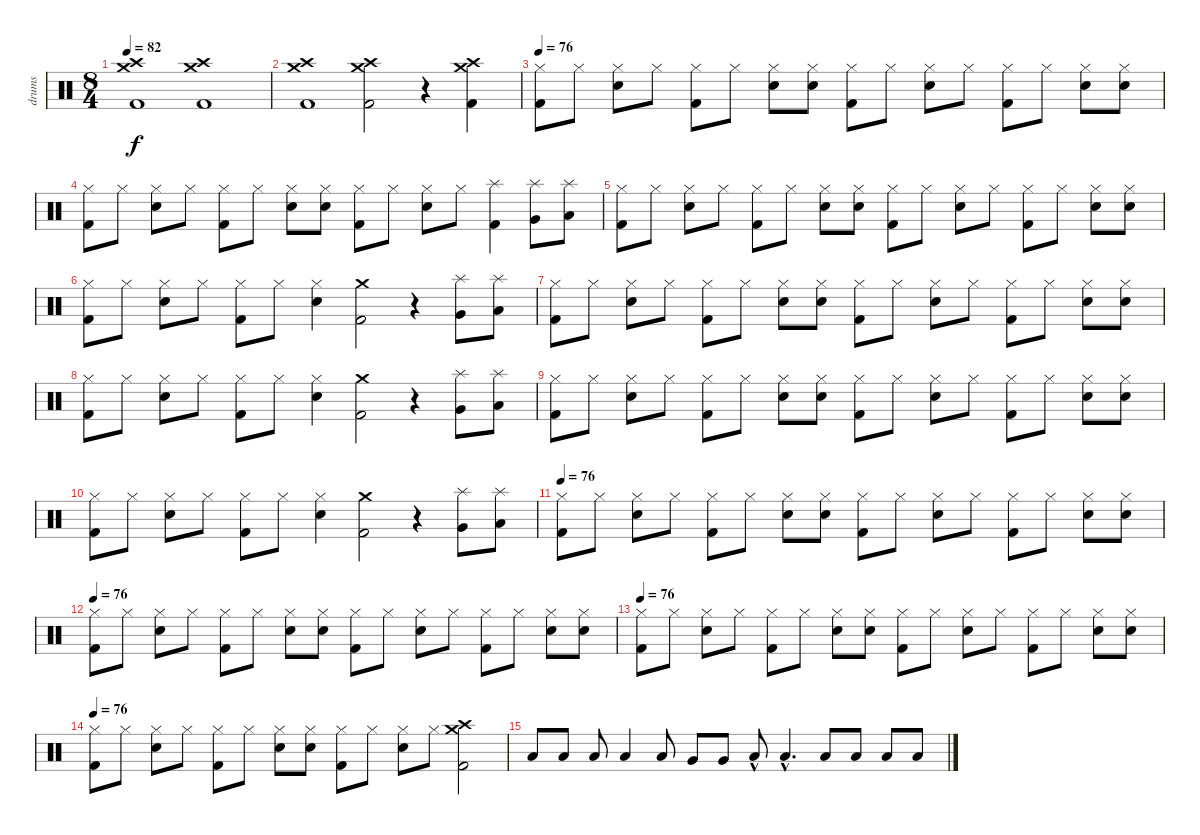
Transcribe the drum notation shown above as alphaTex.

\track ("drums" "drums") {instrument percussion}
\staff {score}
\articulation defaults
\ts (8 4)
\tempo 82
\clef neutral
\ks c
("Kick (hit) 2" "Crash medium (hit)" "Crash high (hit)").1{dy f} ("Kick (hit) 2" "Crash medium (hit)" "Crash high (hit)").1 |
("Kick (hit) 2" "Crash medium (hit)" "Crash high (hit)").1 ("Kick (hit) 2" "Crash medium (hit)" "Crash high (hit)").2 r.4 ("Kick (hit) 2" "Crash medium (hit)" "Crash high (hit)").4 |
\tempo 76
("Kick (hit) 2" "Hi-Hat (closed)").8 "Hi-Hat (closed)".8 ("Electric Snare (hit)" "Hi-Hat (closed)").8 "Hi-Hat (closed)".8 ("Kick (hit) 2" "Hi-Hat (closed)").8 "Hi-Hat (closed)".8 ("Electric Snare (hit)" "Hi-Hat (closed)").8 ("Electric Snare (hit)" "Hi-Hat (closed)").8 ("Kick (hit) 2" "Hi-Hat (closed)").8 "Hi-Hat (closed)".8 ("Electric Snare (hit)" "Hi-Hat (closed)").8 "Hi-Hat (closed)".8 ("Kick (hit) 2" "Hi-Hat (closed)").8 "Hi-Hat (closed)".8 ("Electric Snare (hit)" "Hi-Hat (closed)").8 ("Electric Snare (hit)" "Hi-Hat (closed)").8 |
("Kick (hit) 2" "Hi-Hat (closed)").8 "Hi-Hat (closed)".8 ("Electric Snare (hit)" "Hi-Hat (closed)").8 "Hi-Hat (closed)".8 ("Kick (hit) 2" "Hi-Hat (closed)").8 "Hi-Hat (closed)".8 ("Electric Snare (hit)" "Hi-Hat (closed)").8 ("Electric Snare (hit)" "Hi-Hat (closed)").8 ("Kick (hit) 2" "Hi-Hat (closed)").8 "Hi-Hat (closed)".8 ("Electric Snare (hit)" "Hi-Hat (closed)").8 "Hi-Hat (closed)".8 ("Kick (hit) 2" "Splash (hit)").4 ("Very Low Tom (hit)" "Splash (hit)").8 ("Low Floor Tom (hit)" "Splash (hit)").8 |
("Kick (hit) 2" "Hi-Hat (closed)").8 "Hi-Hat (closed)".8 ("Electric Snare (hit)" "Hi-Hat (closed)").8 "Hi-Hat (closed)".8 ("Kick (hit) 2" "Hi-Hat (closed)").8 "Hi-Hat (closed)".8 ("Electric Snare (hit)" "Hi-Hat (closed)").8 ("Electric Snare (hit)" "Hi-Hat (closed)").8 ("Kick (hit) 2" "Hi-Hat (closed)").8 "Hi-Hat (closed)".8 ("Electric Snare (hit)" "Hi-Hat (closed)").8 "Hi-Hat (closed)".8 ("Kick (hit) 2" "Hi-Hat (closed)").8 "Hi-Hat (closed)".8 ("Electric Snare (hit)" "Hi-Hat (closed)").8 ("Electric Snare (hit)" "Hi-Hat (closed)").8 |
("Kick (hit) 2" "Hi-Hat (closed)").8 "Hi-Hat (closed)".8 ("Electric Snare (hit)" "Hi-Hat (closed)").8 "Hi-Hat (closed)".8 ("Kick (hit) 2" "Hi-Hat (closed)").8 "Hi-Hat (closed)".8 ("Electric Snare (hit)" "Hi-Hat (closed)").4 ("Kick (hit) 2" "Crash medium (hit)").2 r.4 ("Very Low Tom (hit)" "Splash (hit)").8 ("Low Floor Tom (hit)" "Splash (hit)").8 |
("Kick (hit) 2" "Hi-Hat (closed)").8 "Hi-Hat (closed)".8 ("Electric Snare (hit)" "Hi-Hat (closed)").8 "Hi-Hat (closed)".8 ("Kick (hit) 2" "Hi-Hat (closed)").8 "Hi-Hat (closed)".8 ("Electric Snare (hit)" "Hi-Hat (closed)").8 ("Electric Snare (hit)" "Hi-Hat (closed)").8 ("Kick (hit) 2" "Hi-Hat (closed)").8 "Hi-Hat (closed)".8 ("Electric Snare (hit)" "Hi-Hat (closed)").8 "Hi-Hat (closed)".8 ("Kick (hit) 2" "Hi-Hat (closed)").8 "Hi-Hat (closed)".8 ("Electric Snare (hit)" "Hi-Hat (closed)").8 ("Electric Snare (hit)" "Hi-Hat (closed)").8 |
("Kick (hit) 2" "Hi-Hat (closed)").8 "Hi-Hat (closed)".8 ("Electric Snare (hit)" "Hi-Hat (closed)").8 "Hi-Hat (closed)".8 ("Kick (hit) 2" "Hi-Hat (closed)").8 "Hi-Hat (closed)".8 ("Electric Snare (hit)" "Hi-Hat (closed)").4 ("Kick (hit) 2" "Crash medium (hit)").2 r.4 ("Very Low Tom (hit)" "Splash (hit)").8 ("Low Floor Tom (hit)" "Splash (hit)").8 |
("Kick (hit) 2" "Hi-Hat (closed)").8 "Hi-Hat (closed)".8 ("Electric Snare (hit)" "Hi-Hat (closed)").8 "Hi-Hat (closed)".8 ("Kick (hit) 2" "Hi-Hat (closed)").8 "Hi-Hat (closed)".8 ("Electric Snare (hit)" "Hi-Hat (closed)").8 ("Electric Snare (hit)" "Hi-Hat (closed)").8 ("Kick (hit) 2" "Hi-Hat (closed)").8 "Hi-Hat (closed)".8 ("Electric Snare (hit)" "Hi-Hat (closed)").8 "Hi-Hat (closed)".8 ("Kick (hit) 2" "Hi-Hat (closed)").8 "Hi-Hat (closed)".8 ("Electric Snare (hit)" "Hi-Hat (closed)").8 ("Electric Snare (hit)" "Hi-Hat (closed)").8 |
("Kick (hit) 2" "Hi-Hat (closed)").8 "Hi-Hat (closed)".8 ("Electric Snare (hit)" "Hi-Hat (closed)").8 "Hi-Hat (closed)".8 ("Kick (hit) 2" "Hi-Hat (closed)").8 "Hi-Hat (closed)".8 ("Electric Snare (hit)" "Hi-Hat (closed)").4 ("Kick (hit) 2" "Crash medium (hit)").2 r.4 ("Very Low Tom (hit)" "Splash (hit)").8 ("Low Floor Tom (hit)" "Splash (hit)").8 |
\tempo 76
("Kick (hit) 2" "Hi-Hat (closed)").8 "Hi-Hat (closed)".8 ("Electric Snare (hit)" "Hi-Hat (closed)").8 "Hi-Hat (closed)".8 ("Kick (hit) 2" "Hi-Hat (closed)").8 "Hi-Hat (closed)".8 ("Electric Snare (hit)" "Hi-Hat (closed)").8 ("Electric Snare (hit)" "Hi-Hat (closed)").8 ("Kick (hit) 2" "Hi-Hat (closed)").8 "Hi-Hat (closed)".8 ("Electric Snare (hit)" "Hi-Hat (closed)").8 "Hi-Hat (closed)".8 ("Kick (hit) 2" "Hi-Hat (closed)").8 "Hi-Hat (closed)".8 ("Electric Snare (hit)" "Hi-Hat (closed)").8 ("Electric Snare (hit)" "Hi-Hat (closed)").8 |
\tempo 76
("Kick (hit) 2" "Hi-Hat (closed)").8 "Hi-Hat (closed)".8 ("Electric Snare (hit)" "Hi-Hat (closed)").8 "Hi-Hat (closed)".8 ("Kick (hit) 2" "Hi-Hat (closed)").8 "Hi-Hat (closed)".8 ("Electric Snare (hit)" "Hi-Hat (closed)").8 ("Electric Snare (hit)" "Hi-Hat (closed)").8 ("Kick (hit) 2" "Hi-Hat (closed)").8 "Hi-Hat (closed)".8 ("Electric Snare (hit)" "Hi-Hat (closed)").8 "Hi-Hat (closed)".8 ("Kick (hit) 2" "Hi-Hat (closed)").8 "Hi-Hat (closed)".8 ("Electric Snare (hit)" "Hi-Hat (closed)").8 ("Electric Snare (hit)" "Hi-Hat (closed)").8 |
\tempo 76
("Kick (hit) 2" "Hi-Hat (closed)").8 "Hi-Hat (closed)".8 ("Electric Snare (hit)" "Hi-Hat (closed)").8 "Hi-Hat (closed)".8 ("Kick (hit) 2" "Hi-Hat (closed)").8 "Hi-Hat (closed)".8 ("Electric Snare (hit)" "Hi-Hat (closed)").8 ("Electric Snare (hit)" "Hi-Hat (closed)").8 ("Kick (hit) 2" "Hi-Hat (closed)").8 "Hi-Hat (closed)".8 ("Electric Snare (hit)" "Hi-Hat (closed)").8 "Hi-Hat (closed)".8 ("Kick (hit) 2" "Hi-Hat (closed)").8 "Hi-Hat (closed)".8 ("Electric Snare (hit)" "Hi-Hat (closed)").8 ("Electric Snare (hit)" "Hi-Hat (closed)").8 |
\tempo 76
("Kick (hit) 2" "Hi-Hat (closed)").8 "Hi-Hat (closed)".8 ("Electric Snare (hit)" "Hi-Hat (closed)").8 "Hi-Hat (closed)".8 ("Kick (hit) 2" "Hi-Hat (closed)").8 "Hi-Hat (closed)".8 ("Electric Snare (hit)" "Hi-Hat (closed)").8 ("Electric Snare (hit)" "Hi-Hat (closed)").8 ("Kick (hit) 2" "Hi-Hat (closed)").8 "Hi-Hat (closed)".8 ("Electric Snare (hit)" "Hi-Hat (closed)").8 "Hi-Hat (closed)".8 ("Kick (hit) 2" "Crash high (hit)" "Crash medium (hit)").2 |
"Low Tom (hit)".8 "Low Tom (hit)".8 "Low Tom (hit)".8 "Low Tom (hit)".4 "Low Tom (hit)".8 "Very Low Tom (hit)".8 "Very Low Tom (hit)".8 "Low Floor Tom (hit)"{hac}.8 "Low Floor Tom (hit)"{hac}.4{d} "Low Floor Tom (hit)".8 "Low Floor Tom (hit)".8 "Low Floor Tom (hit)".8 "Low Floor Tom (hit)".8
